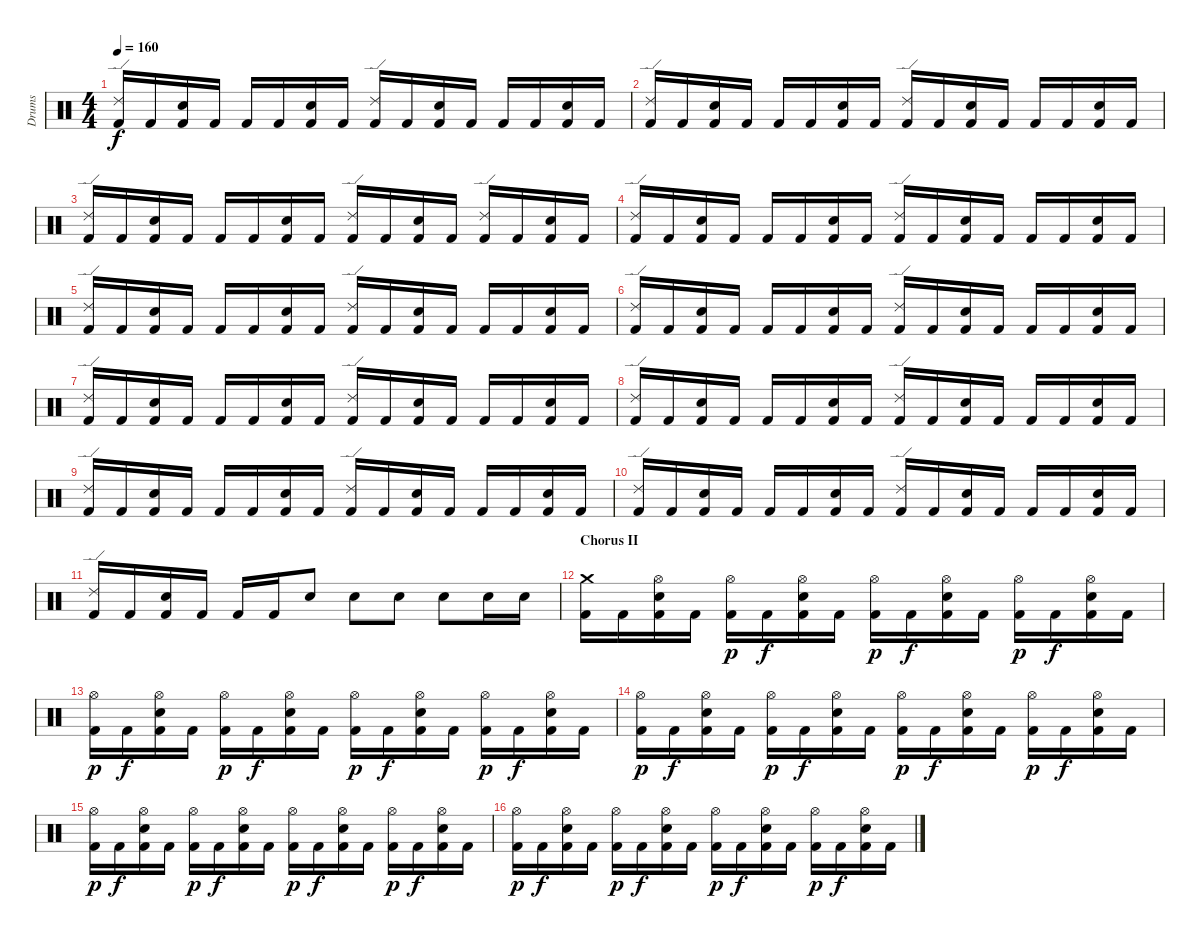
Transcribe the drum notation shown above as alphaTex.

\track ("Drums" "Drums") {instrument percussion}
\staff {score}
\articulation defaults
\ts (4 4)
\tempo 160
\clef neutral
\ks c
("Ride (edge) 2" "Kick (hit) 2").16{dy f} "Kick (hit) 2".16 ("Electric Snare (hit)" "Kick (hit) 2").16 "Kick (hit) 2".16 "Kick (hit) 2".16 "Kick (hit) 2".16 ("Electric Snare (hit)" "Kick (hit) 2").16 "Kick (hit) 2".16 ("Ride (edge) 2" "Kick (hit) 2").16 "Kick (hit) 2".16 ("Electric Snare (hit)" "Kick (hit) 2").16 "Kick (hit) 2".16 "Kick (hit) 2".16 "Kick (hit) 2".16 ("Electric Snare (hit)" "Kick (hit) 2").16 "Kick (hit) 2".16 |
("Ride (edge) 2" "Kick (hit) 2").16 "Kick (hit) 2".16 ("Electric Snare (hit)" "Kick (hit) 2").16 "Kick (hit) 2".16 "Kick (hit) 2".16 "Kick (hit) 2".16 ("Electric Snare (hit)" "Kick (hit) 2").16 "Kick (hit) 2".16 ("Ride (edge) 2" "Kick (hit) 2").16 "Kick (hit) 2".16 ("Electric Snare (hit)" "Kick (hit) 2").16 "Kick (hit) 2".16 "Kick (hit) 2".16 "Kick (hit) 2".16 ("Electric Snare (hit)" "Kick (hit) 2").16 "Kick (hit) 2".16 |
("Ride (edge) 2" "Kick (hit) 2").16 "Kick (hit) 2".16 ("Electric Snare (hit)" "Kick (hit) 2").16 "Kick (hit) 2".16 "Kick (hit) 2".16 "Kick (hit) 2".16 ("Electric Snare (hit)" "Kick (hit) 2").16 "Kick (hit) 2".16 ("Ride (edge) 2" "Kick (hit) 2").16 "Kick (hit) 2".16 ("Electric Snare (hit)" "Kick (hit) 2").16 "Kick (hit) 2".16 ("Ride (edge) 2" "Kick (hit) 2").16 "Kick (hit) 2".16 ("Electric Snare (hit)" "Kick (hit) 2").16 "Kick (hit) 2".16 |
("Ride (edge) 2" "Kick (hit) 2").16 "Kick (hit) 2".16 ("Electric Snare (hit)" "Kick (hit) 2").16 "Kick (hit) 2".16 "Kick (hit) 2".16 "Kick (hit) 2".16 ("Electric Snare (hit)" "Kick (hit) 2").16 "Kick (hit) 2".16 ("Ride (edge) 2" "Kick (hit) 2").16 "Kick (hit) 2".16 ("Electric Snare (hit)" "Kick (hit) 2").16 "Kick (hit) 2".16 "Kick (hit) 2".16 "Kick (hit) 2".16 ("Electric Snare (hit)" "Kick (hit) 2").16 "Kick (hit) 2".16 |
("Ride (edge) 2" "Kick (hit) 2").16 "Kick (hit) 2".16 ("Electric Snare (hit)" "Kick (hit) 2").16 "Kick (hit) 2".16 "Kick (hit) 2".16 "Kick (hit) 2".16 ("Electric Snare (hit)" "Kick (hit) 2").16 "Kick (hit) 2".16 ("Ride (edge) 2" "Kick (hit) 2").16 "Kick (hit) 2".16 ("Electric Snare (hit)" "Kick (hit) 2").16 "Kick (hit) 2".16 "Kick (hit) 2".16 "Kick (hit) 2".16 ("Electric Snare (hit)" "Kick (hit) 2").16 "Kick (hit) 2".16 |
("Ride (edge) 2" "Kick (hit) 2").16 "Kick (hit) 2".16 ("Electric Snare (hit)" "Kick (hit) 2").16 "Kick (hit) 2".16 "Kick (hit) 2".16 "Kick (hit) 2".16 ("Electric Snare (hit)" "Kick (hit) 2").16 "Kick (hit) 2".16 ("Ride (edge) 2" "Kick (hit) 2").16 "Kick (hit) 2".16 ("Electric Snare (hit)" "Kick (hit) 2").16 "Kick (hit) 2".16 "Kick (hit) 2".16 "Kick (hit) 2".16 ("Electric Snare (hit)" "Kick (hit) 2").16 "Kick (hit) 2".16 |
("Ride (edge) 2" "Kick (hit) 2").16 "Kick (hit) 2".16 ("Electric Snare (hit)" "Kick (hit) 2").16 "Kick (hit) 2".16 "Kick (hit) 2".16 "Kick (hit) 2".16 ("Electric Snare (hit)" "Kick (hit) 2").16 "Kick (hit) 2".16 ("Ride (edge) 2" "Kick (hit) 2").16 "Kick (hit) 2".16 ("Electric Snare (hit)" "Kick (hit) 2").16 "Kick (hit) 2".16 "Kick (hit) 2".16 "Kick (hit) 2".16 ("Electric Snare (hit)" "Kick (hit) 2").16 "Kick (hit) 2".16 |
("Ride (edge) 2" "Kick (hit) 2").16 "Kick (hit) 2".16 ("Electric Snare (hit)" "Kick (hit) 2").16 "Kick (hit) 2".16 "Kick (hit) 2".16 "Kick (hit) 2".16 ("Electric Snare (hit)" "Kick (hit) 2").16 "Kick (hit) 2".16 ("Ride (edge) 2" "Kick (hit) 2").16 "Kick (hit) 2".16 ("Electric Snare (hit)" "Kick (hit) 2").16 "Kick (hit) 2".16 "Kick (hit) 2".16 "Kick (hit) 2".16 ("Electric Snare (hit)" "Kick (hit) 2").16 "Kick (hit) 2".16 |
("Ride (edge) 2" "Kick (hit) 2").16 "Kick (hit) 2".16 ("Electric Snare (hit)" "Kick (hit) 2").16 "Kick (hit) 2".16 "Kick (hit) 2".16 "Kick (hit) 2".16 ("Electric Snare (hit)" "Kick (hit) 2").16 "Kick (hit) 2".16 ("Ride (edge) 2" "Kick (hit) 2").16 "Kick (hit) 2".16 ("Electric Snare (hit)" "Kick (hit) 2").16 "Kick (hit) 2".16 "Kick (hit) 2".16 "Kick (hit) 2".16 ("Electric Snare (hit)" "Kick (hit) 2").16 "Kick (hit) 2".16 |
("Ride (edge) 2" "Kick (hit) 2").16 "Kick (hit) 2".16 ("Electric Snare (hit)" "Kick (hit) 2").16 "Kick (hit) 2".16 "Kick (hit) 2".16 "Kick (hit) 2".16 ("Electric Snare (hit)" "Kick (hit) 2").16 "Kick (hit) 2".16 ("Ride (edge) 2" "Kick (hit) 2").16 "Kick (hit) 2".16 ("Electric Snare (hit)" "Kick (hit) 2").16 "Kick (hit) 2".16 "Kick (hit) 2".16 "Kick (hit) 2".16 ("Electric Snare (hit)" "Kick (hit) 2").16 "Kick (hit) 2".16 |
("Ride (edge) 2" "Kick (hit) 2").16 "Kick (hit) 2".16 ("Electric Snare (hit)" "Kick (hit) 2").16 "Kick (hit) 2".16 "Kick (hit) 2".16 "Kick (hit) 2".16 "Electric Snare (hit)".8 "Electric Snare (hit)".8 "Electric Snare (hit)".8 "Electric Snare (hit)".8 "Electric Snare (hit)".16 "Electric Snare (hit)".16 |
\section ("" "Chorus II")
("Crash medium (hit)" "Kick (hit) 2").16 "Kick (hit) 2".16 ("Hi-Hat (open)" "Electric Snare (hit)" "Kick (hit) 2").16 "Kick (hit) 2".16 ("Hi-Hat (open)" "Kick (hit) 2").16{dy p} "Kick (hit) 2".16{dy f} ("Hi-Hat (open)" "Electric Snare (hit)" "Kick (hit) 2").16 "Kick (hit) 2".16 ("Hi-Hat (open)" "Kick (hit) 2").16{dy p} "Kick (hit) 2".16{dy f} ("Hi-Hat (open)" "Electric Snare (hit)" "Kick (hit) 2").16 "Kick (hit) 2".16 ("Hi-Hat (open)" "Kick (hit) 2").16{dy p} "Kick (hit) 2".16{dy f} ("Hi-Hat (open)" "Electric Snare (hit)" "Kick (hit) 2").16 "Kick (hit) 2".16 |
("Hi-Hat (open)" "Kick (hit) 2").16{dy p} "Kick (hit) 2".16{dy f} ("Hi-Hat (open)" "Electric Snare (hit)" "Kick (hit) 2").16 "Kick (hit) 2".16 ("Hi-Hat (open)" "Kick (hit) 2").16{dy p} "Kick (hit) 2".16{dy f} ("Hi-Hat (open)" "Electric Snare (hit)" "Kick (hit) 2").16 "Kick (hit) 2".16 ("Hi-Hat (open)" "Kick (hit) 2").16{dy p} "Kick (hit) 2".16{dy f} ("Hi-Hat (open)" "Electric Snare (hit)" "Kick (hit) 2").16 "Kick (hit) 2".16 ("Hi-Hat (open)" "Kick (hit) 2").16{dy p} "Kick (hit) 2".16{dy f} ("Hi-Hat (open)" "Electric Snare (hit)" "Kick (hit) 2").16 "Kick (hit) 2".16 |
("Hi-Hat (open)" "Kick (hit) 2").16{dy p} "Kick (hit) 2".16{dy f} ("Hi-Hat (open)" "Electric Snare (hit)" "Kick (hit) 2").16 "Kick (hit) 2".16 ("Hi-Hat (open)" "Kick (hit) 2").16{dy p} "Kick (hit) 2".16{dy f} ("Hi-Hat (open)" "Electric Snare (hit)" "Kick (hit) 2").16 "Kick (hit) 2".16 ("Hi-Hat (open)" "Kick (hit) 2").16{dy p} "Kick (hit) 2".16{dy f} ("Hi-Hat (open)" "Electric Snare (hit)" "Kick (hit) 2").16 "Kick (hit) 2".16 ("Hi-Hat (open)" "Kick (hit) 2").16{dy p} "Kick (hit) 2".16{dy f} ("Hi-Hat (open)" "Electric Snare (hit)" "Kick (hit) 2").16 "Kick (hit) 2".16 |
("Hi-Hat (open)" "Kick (hit) 2").16{dy p} "Kick (hit) 2".16{dy f} ("Hi-Hat (open)" "Electric Snare (hit)" "Kick (hit) 2").16 "Kick (hit) 2".16 ("Hi-Hat (open)" "Kick (hit) 2").16{dy p} "Kick (hit) 2".16{dy f} ("Hi-Hat (open)" "Electric Snare (hit)" "Kick (hit) 2").16 "Kick (hit) 2".16 ("Hi-Hat (open)" "Kick (hit) 2").16{dy p} "Kick (hit) 2".16{dy f} ("Hi-Hat (open)" "Electric Snare (hit)" "Kick (hit) 2").16 "Kick (hit) 2".16 ("Hi-Hat (open)" "Kick (hit) 2").16{dy p} "Kick (hit) 2".16{dy f} ("Hi-Hat (open)" "Electric Snare (hit)" "Kick (hit) 2").16 "Kick (hit) 2".16 |
("Hi-Hat (open)" "Kick (hit) 2").16{dy p} "Kick (hit) 2".16{dy f} ("Hi-Hat (open)" "Electric Snare (hit)" "Kick (hit) 2").16 "Kick (hit) 2".16 ("Hi-Hat (open)" "Kick (hit) 2").16{dy p} "Kick (hit) 2".16{dy f} ("Hi-Hat (open)" "Electric Snare (hit)" "Kick (hit) 2").16 "Kick (hit) 2".16 ("Hi-Hat (open)" "Kick (hit) 2").16{dy p} "Kick (hit) 2".16{dy f} ("Hi-Hat (open)" "Electric Snare (hit)" "Kick (hit) 2").16 "Kick (hit) 2".16 ("Hi-Hat (open)" "Kick (hit) 2").16{dy p} "Kick (hit) 2".16{dy f} ("Hi-Hat (open)" "Electric Snare (hit)" "Kick (hit) 2").16 "Kick (hit) 2".16
